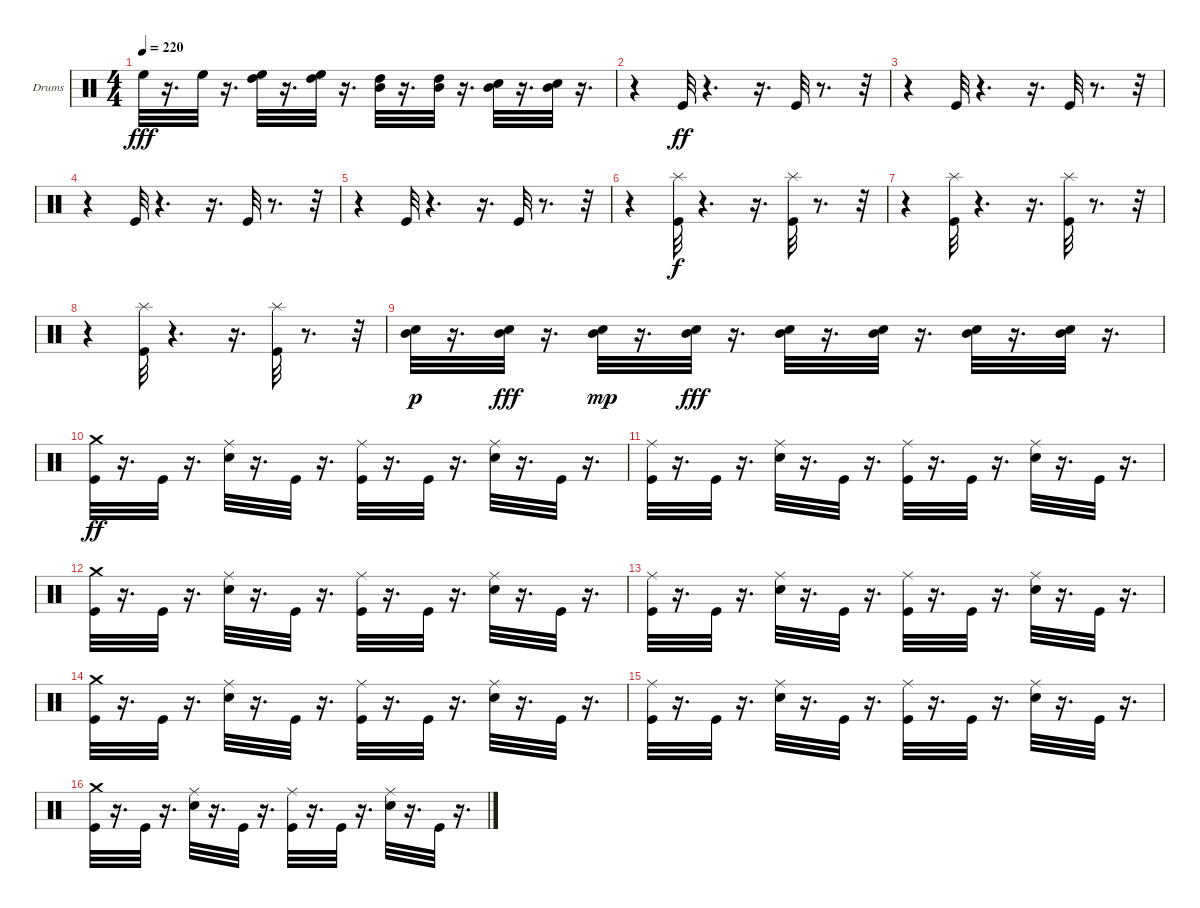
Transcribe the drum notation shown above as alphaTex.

\defaultSystemsLayout 4
\bracketExtendMode groupsimilarinstruments
\firstSystemTrackNameOrientation horizontal
\otherSystemsTrackNameOrientation horizontal
\track ("Дмитрий Кривенков" "Drums") {instrument percussion}
\staff {score}
\articulation defaults
\ts (4 4)
\tempo 220
\clef neutral
\ks c "High Floor Tom (hit)".32{dy fff}
r.16{d} "High Floor Tom (hit)".32 r.16{d} ("High Tom (hit)" "High Floor Tom (hit)").32 r.16{d} ("High Floor Tom (hit)" "High Tom (hit)").32 r.16{d} ("Mid Tom (hit)" "High Tom (hit)").32 r.16{d} ("Mid Tom (hit)" "High Tom (hit)").32 r.16{d} ("Mid Tom (hit)" "Snare (hit) 2").32 r.16{d} ("Mid Tom (hit)" "Snare (hit) 2").32 r.16{d} |
r.4 "Kick (hit)".32{dy ff} r.4{d} r.16{d} "Kick (hit)".32 r.8{d} r.32 |
r.4 "Kick (hit)".32 r.4{d} r.16{d} "Kick (hit)".32 r.8{d} r.32 |
r.4 "Kick (hit)".32 r.4{d} r.16{d} "Kick (hit)".32 r.8{d} r.32 |
r.4 "Kick (hit)".32 r.4{d} r.16{d} "Kick (hit)".32 r.8{d} r.32 |
r.4 ("Splash (hit)" "Kick (hit)").32{dy f} r.4{d} r.16{d} ("Splash (hit)" "Kick (hit)").32 r.8{d} r.32 |
r.4 ("Splash (hit)" "Kick (hit)").32 r.4{d} r.16{d} ("Splash (hit)" "Kick (hit)").32 r.8{d} r.32 |
r.4 ("Splash (hit)" "Kick (hit)").32 r.4{d} r.16{d} ("Splash (hit)" "Kick (hit)").32 r.8{d} r.32 |
("Snare (hit) 2" "Mid Tom (hit)").32{dy p} r.16{d} ("Mid Tom (hit)" "Snare (hit) 2").32{dy fff} r.16{d} ("Snare (hit) 2" "Mid Tom (hit)").32{dy mp} r.16{d} ("Mid Tom (hit)" "Snare (hit) 2").32{dy fff} r.16{d} ("Mid Tom (hit)" "Snare (hit) 2").32 r.16{d} ("Mid Tom (hit)" "Snare (hit) 2").32 r.16{d} ("Mid Tom (hit)" "Snare (hit) 2").32 r.16{d} ("Mid Tom (hit)" "Snare (hit) 2").32 r.16{d} |
("Crash medium (hit)" "Kick (hit)").32{dy ff} r.16{d} "Kick (hit)".32 r.16{d} ("Ride (middle)" "Snare (hit) 2").32 r.16{d} "Kick (hit)".32 r.16{d} ("Ride (middle)" "Kick (hit)").32 r.16{d} "Kick (hit)".32 r.16{d} ("Ride (middle)" "Snare (hit) 2").32 r.16{d} "Kick (hit)".32 r.16{d} |
("Ride (middle)" "Kick (hit)").32 r.16{d} "Kick (hit)".32 r.16{d} ("Ride (middle)" "Snare (hit) 2").32 r.16{d} "Kick (hit)".32 r.16{d} ("Ride (middle)" "Kick (hit)").32 r.16{d} "Kick (hit)".32 r.16{d} ("Ride (middle)" "Snare (hit) 2").32 r.16{d} "Kick (hit)".32 r.16{d} |
("Crash medium (hit)" "Kick (hit)").32 r.16{d} "Kick (hit)".32 r.16{d} ("Ride (middle)" "Snare (hit) 2").32 r.16{d} "Kick (hit)".32 r.16{d} ("Ride (middle)" "Kick (hit)").32 r.16{d} "Kick (hit)".32 r.16{d} ("Ride (middle)" "Snare (hit) 2").32 r.16{d} "Kick (hit)".32 r.16{d} |
("Ride (middle)" "Kick (hit)").32 r.16{d} "Kick (hit)".32 r.16{d} ("Ride (middle)" "Snare (hit) 2").32 r.16{d} "Kick (hit)".32 r.16{d} ("Ride (middle)" "Kick (hit)").32 r.16{d} "Kick (hit)".32 r.16{d} ("Ride (middle)" "Snare (hit) 2").32 r.16{d} "Kick (hit)".32 r.16{d} |
("Crash medium (hit)" "Kick (hit)").32 r.16{d} "Kick (hit)".32 r.16{d} ("Ride (middle)" "Snare (hit) 2").32 r.16{d} "Kick (hit)".32 r.16{d} ("Ride (middle)" "Kick (hit)").32 r.16{d} "Kick (hit)".32 r.16{d} ("Ride (middle)" "Snare (hit) 2").32 r.16{d} "Kick (hit)".32 r.16{d} |
("Ride (middle)" "Kick (hit)").32 r.16{d} "Kick (hit)".32 r.16{d} ("Ride (middle)" "Snare (hit) 2").32 r.16{d} "Kick (hit)".32 r.16{d} ("Ride (middle)" "Kick (hit)").32 r.16{d} "Kick (hit)".32 r.16{d} ("Ride (middle)" "Snare (hit) 2").32 r.16{d} "Kick (hit)".32 r.16{d} |
("Crash medium (hit)" "Kick (hit)").32 r.16{d} "Kick (hit)".32 r.16{d} ("Ride (middle)" "Snare (hit) 2").32 r.16{d} "Kick (hit)".32 r.16{d} ("Ride (middle)" "Kick (hit)").32 r.16{d} "Kick (hit)".32 r.16{d} ("Ride (middle)" "Snare (hit) 2").32 r.16{d} "Kick (hit)".32 r.16{d}
